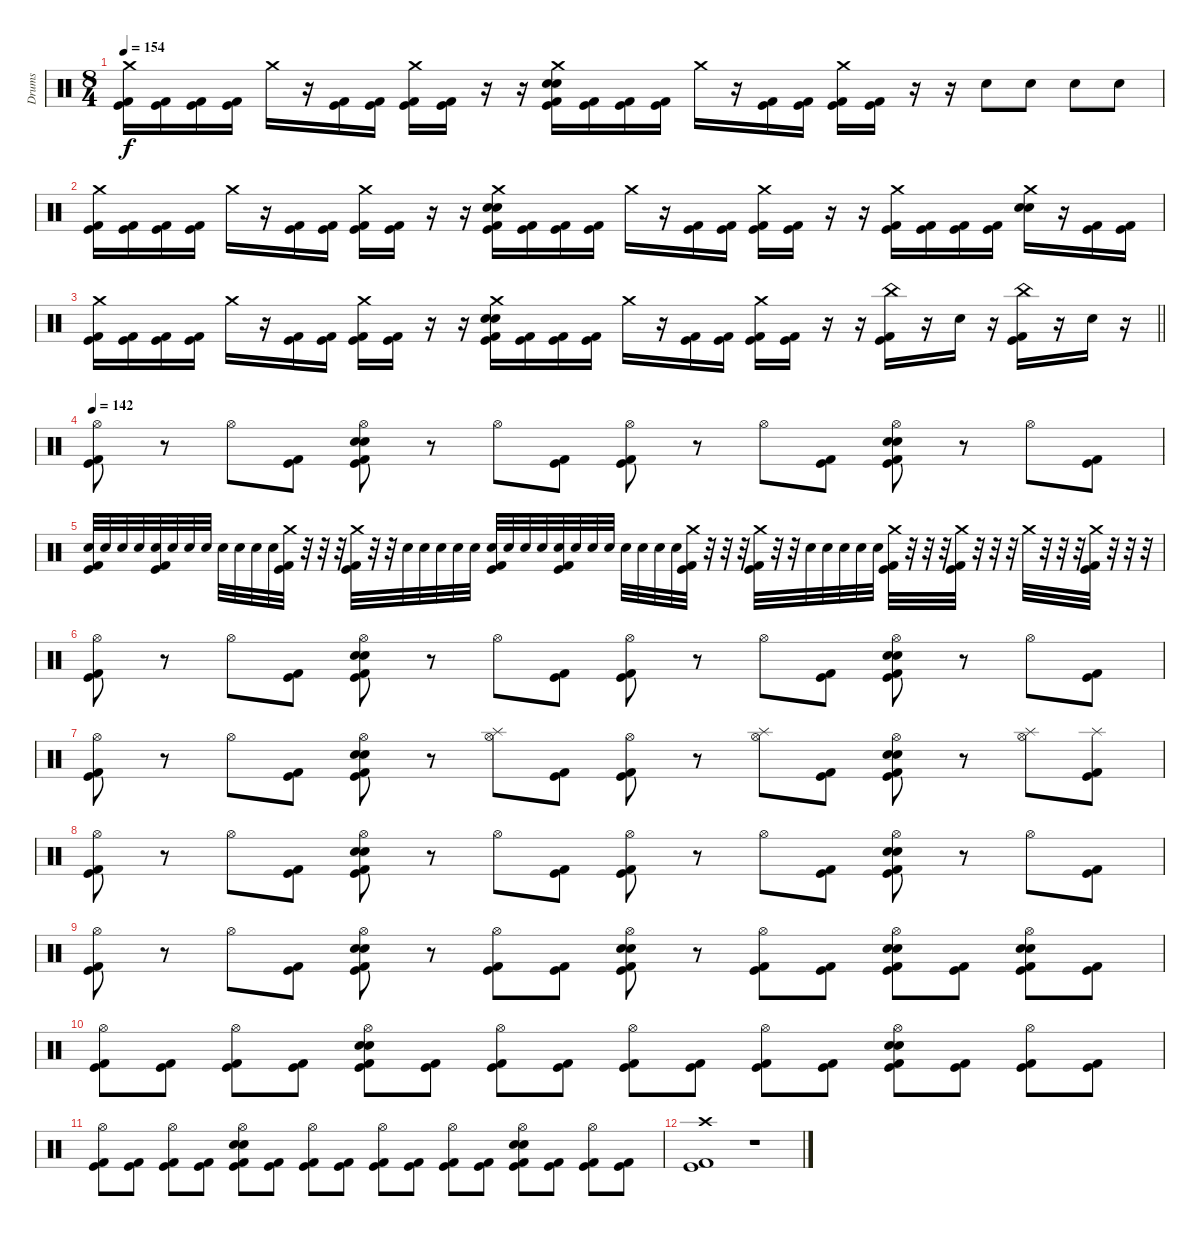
\track ("Drums" "Drums") {instrument percussion}
\staff {score}
\articulation defaults
\ts (8 4)
\tempo 154
\clef neutral
\ks c
("Crash medium (hit)" "Kick (hit)" "Kick (hit) 2").16{dy f} ("Kick (hit)" "Kick (hit) 2").16 ("Kick (hit)" "Kick (hit) 2").16 ("Kick (hit)" "Kick (hit) 2").16 "Crash medium (hit)".16 r.16 ("Kick (hit)" "Kick (hit) 2").16 ("Kick (hit)" "Kick (hit) 2").16 ("Crash medium (hit)" "Kick (hit)" "Kick (hit) 2").16 ("Kick (hit)" "Kick (hit) 2").16 r.16 r.16 ("Crash medium (hit)" "Snare (hit) 2" "Electric Snare (hit)" "Kick (hit)" "Kick (hit) 2").16 ("Kick (hit)" "Kick (hit) 2").16 ("Kick (hit)" "Kick (hit) 2").16 ("Kick (hit)" "Kick (hit) 2").16 "Crash medium (hit)".16 r.16 ("Kick (hit)" "Kick (hit) 2").16 ("Kick (hit)" "Kick (hit) 2").16 ("Crash medium (hit)" "Kick (hit)" "Kick (hit) 2").16 ("Kick (hit)" "Kick (hit) 2").16 r.16 r.16 "Snare (hit) 2".8 "Snare (hit) 2".8 "Snare (hit) 2".8 "Snare (hit) 2".8 |
("Crash medium (hit)" "Kick (hit)" "Kick (hit) 2").16 ("Kick (hit)" "Kick (hit) 2").16 ("Kick (hit)" "Kick (hit) 2").16 ("Kick (hit)" "Kick (hit) 2").16 "Crash medium (hit)".16 r.16 ("Kick (hit)" "Kick (hit) 2").16 ("Kick (hit)" "Kick (hit) 2").16 ("Crash medium (hit)" "Kick (hit)" "Kick (hit) 2").16 ("Kick (hit)" "Kick (hit) 2").16 r.16 r.16 ("Crash medium (hit)" "Snare (hit) 2" "Electric Snare (hit)" "Kick (hit)" "Kick (hit) 2").16 ("Kick (hit)" "Kick (hit) 2").16 ("Kick (hit)" "Kick (hit) 2").16 ("Kick (hit)" "Kick (hit) 2").16 "Crash medium (hit)".16 r.16 ("Kick (hit)" "Kick (hit) 2").16 ("Kick (hit)" "Kick (hit) 2").16 ("Crash medium (hit)" "Kick (hit)" "Kick (hit) 2").16 ("Kick (hit)" "Kick (hit) 2").16 r.16 r.16 ("Crash medium (hit)" "Kick (hit)" "Kick (hit) 2").16 ("Kick (hit)" "Kick (hit) 2").16 ("Kick (hit)" "Kick (hit) 2").16 ("Kick (hit)" "Kick (hit) 2").16 ("Crash medium (hit)" "Snare (hit) 2" "Electric Snare (hit)").16 r.16 ("Kick (hit)" "Kick (hit) 2").16 ("Kick (hit)" "Kick (hit) 2").16 |
\barLineRight lightlight
("Crash medium (hit)" "Kick (hit)" "Kick (hit) 2").16 ("Kick (hit)" "Kick (hit) 2").16 ("Kick (hit)" "Kick (hit) 2").16 ("Kick (hit)" "Kick (hit) 2").16 "Crash medium (hit)".16 r.16 ("Kick (hit)" "Kick (hit) 2").16 ("Kick (hit)" "Kick (hit) 2").16 ("Crash medium (hit)" "Kick (hit)" "Kick (hit) 2").16 ("Kick (hit)" "Kick (hit) 2").16 r.16 r.16 ("Crash medium (hit)" "Snare (hit) 2" "Electric Snare (hit)" "Kick (hit)" "Kick (hit) 2").16 ("Kick (hit)" "Kick (hit) 2").16 ("Kick (hit)" "Kick (hit) 2").16 ("Kick (hit)" "Kick (hit) 2").16 "Crash medium (hit)".16 r.16 ("Kick (hit)" "Kick (hit) 2").16 ("Kick (hit)" "Kick (hit) 2").16 ("Crash medium (hit)" "Kick (hit)" "Kick (hit) 2").16 ("Kick (hit)" "Kick (hit) 2").16 r.16 r.16 ("China (hit)" "Kick (hit)" "Kick (hit) 2").16 r.16 "Snare (hit) 2".16 r.16 ("China (hit)" "Kick (hit)" "Kick (hit) 2").16 r.16 "Snare (hit) 2".16 r.16 |
\tempo 142
("Hi-Hat (open)" "Kick (hit)" "Kick (hit) 2").8 r.8 "Hi-Hat (open)".8 ("Kick (hit)" "Kick (hit) 2").8 ("Hi-Hat (open)" "Snare (hit) 2" "Electric Snare (hit)" "Kick (hit)" "Kick (hit) 2").8 r.8 "Hi-Hat (open)".8 ("Kick (hit)" "Kick (hit) 2").8 ("Hi-Hat (open)" "Kick (hit)" "Kick (hit) 2").8 r.8 "Hi-Hat (open)".8 ("Kick (hit)" "Kick (hit) 2").8 ("Hi-Hat (open)" "Snare (hit) 2" "Electric Snare (hit)" "Kick (hit)" "Kick (hit) 2").8 r.8 "Hi-Hat (open)".8 ("Kick (hit)" "Kick (hit) 2").8 |
("Snare (hit) 2" "Kick (hit)" "Kick (hit) 2").32 "Snare (hit) 2".32 "Snare (hit) 2".32 "Snare (hit) 2".32 ("Snare (hit) 2" "Kick (hit)" "Kick (hit) 2").32 "Snare (hit) 2".32 "Snare (hit) 2".32 "Snare (hit) 2".32 "Snare (hit) 2".32 "Snare (hit) 2".32 "Snare (hit) 2".32 "Snare (hit) 2".32 ("Crash medium (hit)" "Kick (hit)" "Kick (hit) 2").32 r.32 r.32 r.32 ("Crash medium (hit)" "Kick (hit)" "Kick (hit) 2").32 r.32 r.32 "Snare (hit) 2".32 "Snare (hit) 2".32 "Snare (hit) 2".32 "Snare (hit) 2".32 "Snare (hit) 2".32 ("Snare (hit) 2" "Kick (hit)" "Kick (hit) 2").32 "Snare (hit) 2".32 "Snare (hit) 2".32 "Snare (hit) 2".32 ("Snare (hit) 2" "Kick (hit)" "Kick (hit) 2").32 "Snare (hit) 2".32 "Snare (hit) 2".32 "Snare (hit) 2".32 "Snare (hit) 2".32 "Snare (hit) 2".32 "Snare (hit) 2".32 "Snare (hit) 2".32 ("Crash medium (hit)" "Kick (hit)" "Kick (hit) 2").32 r.32 r.32 r.32 ("Crash medium (hit)" "Kick (hit)" "Kick (hit) 2").32 r.32 r.32 "Snare (hit) 2".32 "Snare (hit) 2".32 "Snare (hit) 2".32 "Snare (hit) 2".32 "Snare (hit) 2".32 ("Crash medium (hit)" "Kick (hit)" "Kick (hit) 2").32 r.32 r.32 r.32 ("Crash medium (hit)" "Kick (hit)" "Kick (hit) 2").32 r.32 r.32 r.32 "Crash medium (hit)".32 r.32 r.32 r.32 ("Crash medium (hit)" "Kick (hit)" "Kick (hit) 2").32 r.32 r.32 r.32 |
("Hi-Hat (open)" "Kick (hit)" "Kick (hit) 2").8 r.8 "Hi-Hat (open)".8 ("Kick (hit)" "Kick (hit) 2").8 ("Hi-Hat (open)" "Snare (hit) 2" "Electric Snare (hit)" "Kick (hit)" "Kick (hit) 2").8 r.8 "Hi-Hat (open)".8 ("Kick (hit)" "Kick (hit) 2").8 ("Hi-Hat (open)" "Kick (hit)" "Kick (hit) 2").8 r.8 "Hi-Hat (open)".8 ("Kick (hit)" "Kick (hit) 2").8 ("Hi-Hat (open)" "Snare (hit) 2" "Electric Snare (hit)" "Kick (hit)" "Kick (hit) 2").8 r.8 "Hi-Hat (open)".8 ("Kick (hit)" "Kick (hit) 2").8 |
("Hi-Hat (open)" "Kick (hit)" "Kick (hit) 2").8 r.8 "Hi-Hat (open)".8 ("Kick (hit)" "Kick (hit) 2").8 ("Hi-Hat (open)" "Snare (hit) 2" "Electric Snare (hit)" "Kick (hit)" "Kick (hit) 2").8 r.8 ("Hi-Hat (open)" "Splash (hit)").8 ("Kick (hit)" "Kick (hit) 2").8 ("Hi-Hat (open)" "Kick (hit)" "Kick (hit) 2").8 r.8 ("Hi-Hat (open)" "Splash (hit)").8 ("Kick (hit)" "Kick (hit) 2").8 ("Hi-Hat (open)" "Snare (hit) 2" "Electric Snare (hit)" "Kick (hit)" "Kick (hit) 2").8 r.8 ("Hi-Hat (open)" "Splash (hit)").8 ("Splash (hit)" "Kick (hit)" "Kick (hit) 2").8 |
("Hi-Hat (open)" "Kick (hit)" "Kick (hit) 2").8 r.8 "Hi-Hat (open)".8 ("Kick (hit)" "Kick (hit) 2").8 ("Hi-Hat (open)" "Snare (hit) 2" "Electric Snare (hit)" "Kick (hit)" "Kick (hit) 2").8 r.8 "Hi-Hat (open)".8 ("Kick (hit)" "Kick (hit) 2").8 ("Hi-Hat (open)" "Kick (hit)" "Kick (hit) 2").8 r.8 "Hi-Hat (open)".8 ("Kick (hit)" "Kick (hit) 2").8 ("Hi-Hat (open)" "Snare (hit) 2" "Electric Snare (hit)" "Kick (hit)" "Kick (hit) 2").8 r.8 "Hi-Hat (open)".8 ("Kick (hit)" "Kick (hit) 2").8 |
("Hi-Hat (open)" "Kick (hit)" "Kick (hit) 2").8 r.8 "Hi-Hat (open)".8 ("Kick (hit)" "Kick (hit) 2").8 ("Hi-Hat (open)" "Snare (hit) 2" "Electric Snare (hit)" "Kick (hit)" "Kick (hit) 2").8 r.8 ("Hi-Hat (open)" "Kick (hit)" "Kick (hit) 2").8 ("Kick (hit)" "Kick (hit) 2").8 ("Hi-Hat (open)" "Snare (hit) 2" "Electric Snare (hit)" "Kick (hit)" "Kick (hit) 2").8 r.8 ("Hi-Hat (open)" "Kick (hit)" "Kick (hit) 2").8 ("Kick (hit)" "Kick (hit) 2").8 ("Hi-Hat (open)" "Snare (hit) 2" "Electric Snare (hit)" "Kick (hit)" "Kick (hit) 2").8 ("Kick (hit)" "Kick (hit) 2").8 ("Hi-Hat (open)" "Snare (hit) 2" "Electric Snare (hit)" "Kick (hit)" "Kick (hit) 2").8 ("Kick (hit)" "Kick (hit) 2").8 |
("Hi-Hat (open)" "Kick (hit)" "Kick (hit) 2").8 ("Kick (hit)" "Kick (hit) 2").8 ("Hi-Hat (open)" "Kick (hit)" "Kick (hit) 2").8 ("Kick (hit)" "Kick (hit) 2").8 ("Hi-Hat (open)" "Snare (hit) 2" "Electric Snare (hit)" "Kick (hit)" "Kick (hit) 2").8 ("Kick (hit)" "Kick (hit) 2").8 ("Hi-Hat (open)" "Kick (hit)" "Kick (hit) 2").8 ("Kick (hit)" "Kick (hit) 2").8 ("Hi-Hat (open)" "Kick (hit)" "Kick (hit) 2").8 ("Kick (hit)" "Kick (hit) 2").8 ("Hi-Hat (open)" "Kick (hit)" "Kick (hit) 2").8 ("Kick (hit)" "Kick (hit) 2").8 ("Hi-Hat (open)" "Snare (hit) 2" "Electric Snare (hit)" "Kick (hit)" "Kick (hit) 2").8 ("Kick (hit)" "Kick (hit) 2").8 ("Hi-Hat (open)" "Kick (hit)" "Kick (hit) 2").8 ("Kick (hit)" "Kick (hit) 2").8 |
("Hi-Hat (open)" "Kick (hit)" "Kick (hit) 2").8 ("Kick (hit)" "Kick (hit) 2").8 ("Hi-Hat (open)" "Kick (hit)" "Kick (hit) 2").8 ("Kick (hit)" "Kick (hit) 2").8 ("Hi-Hat (open)" "Snare (hit) 2" "Electric Snare (hit)" "Kick (hit)" "Kick (hit) 2").8 ("Kick (hit)" "Kick (hit) 2").8 ("Hi-Hat (open)" "Kick (hit)" "Kick (hit) 2").8 ("Kick (hit)" "Kick (hit) 2").8 ("Hi-Hat (open)" "Kick (hit)" "Kick (hit) 2").8 ("Kick (hit)" "Kick (hit) 2").8 ("Hi-Hat (open)" "Kick (hit)" "Kick (hit) 2").8 ("Kick (hit)" "Kick (hit) 2").8 ("Hi-Hat (open)" "Snare (hit) 2" "Electric Snare (hit)" "Kick (hit)" "Kick (hit) 2").8 ("Kick (hit)" "Kick (hit) 2").8 ("Hi-Hat (open)" "Kick (hit)" "Kick (hit) 2").8 ("Kick (hit)" "Kick (hit) 2").8 |
("Crash high (hit)" "Kick (hit)" "Kick (hit) 2").1 r.1
